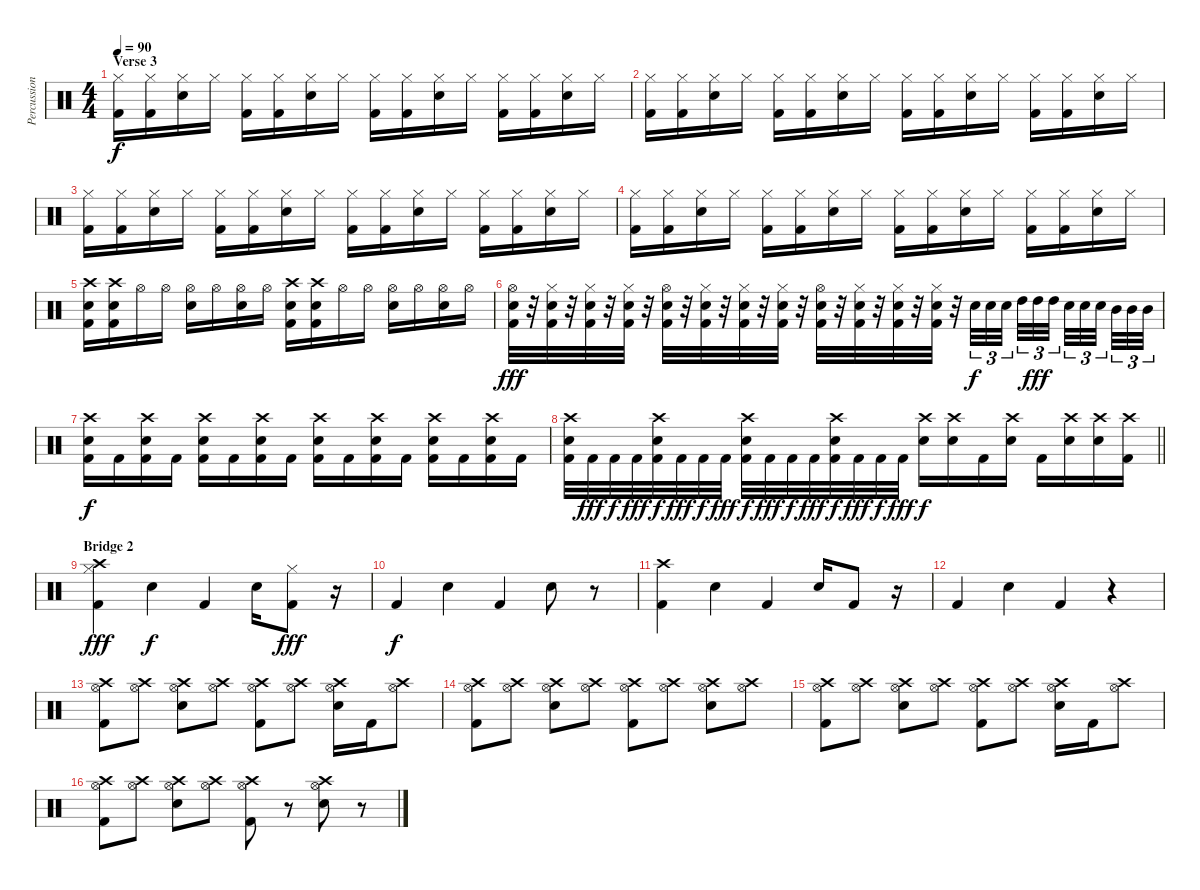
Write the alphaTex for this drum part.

\track ("Percussion" "Percussion") {instrument percussion}
\staff {score}
\articulation defaults
\ts (4 4)
\section ("" "Verse 3")
\tempo 90
\clef neutral
\ks c
("Hi-Hat (closed)" "Kick (hit) 2").16{dy f} ("Hi-Hat (closed)" "Kick (hit) 2").16 ("Hi-Hat (closed)" "Snare (hit) 2").16 "Hi-Hat (closed)".16 ("Hi-Hat (closed)" "Kick (hit) 2").16 ("Hi-Hat (closed)" "Kick (hit) 2").16 ("Hi-Hat (closed)" "Snare (hit) 2").16 "Hi-Hat (closed)".16 ("Hi-Hat (closed)" "Kick (hit) 2").16 ("Hi-Hat (closed)" "Kick (hit) 2").16 ("Hi-Hat (closed)" "Snare (hit) 2").16 "Hi-Hat (closed)".16 ("Hi-Hat (closed)" "Kick (hit) 2").16 ("Hi-Hat (closed)" "Kick (hit) 2").16 ("Hi-Hat (closed)" "Snare (hit) 2").16 "Hi-Hat (closed)".16 |
("Hi-Hat (closed)" "Kick (hit) 2").16 ("Hi-Hat (closed)" "Kick (hit) 2").16 ("Hi-Hat (closed)" "Snare (hit) 2").16 "Hi-Hat (closed)".16 ("Hi-Hat (closed)" "Kick (hit) 2").16 ("Hi-Hat (closed)" "Kick (hit) 2").16 ("Hi-Hat (closed)" "Snare (hit) 2").16 "Hi-Hat (closed)".16 ("Hi-Hat (closed)" "Kick (hit) 2").16 ("Hi-Hat (closed)" "Kick (hit) 2").16 ("Hi-Hat (closed)" "Snare (hit) 2").16 "Hi-Hat (closed)".16 ("Hi-Hat (closed)" "Kick (hit) 2").16 ("Hi-Hat (closed)" "Kick (hit) 2").16 ("Hi-Hat (closed)" "Snare (hit) 2").16 "Hi-Hat (closed)".16 |
("Hi-Hat (closed)" "Kick (hit) 2").16 ("Hi-Hat (closed)" "Kick (hit) 2").16 ("Hi-Hat (closed)" "Snare (hit) 2").16 "Hi-Hat (closed)".16 ("Hi-Hat (closed)" "Kick (hit) 2").16 ("Hi-Hat (closed)" "Kick (hit) 2").16 ("Hi-Hat (closed)" "Snare (hit) 2").16 "Hi-Hat (closed)".16 ("Hi-Hat (closed)" "Kick (hit) 2").16 ("Hi-Hat (closed)" "Kick (hit) 2").16 ("Hi-Hat (closed)" "Snare (hit) 2").16 "Hi-Hat (closed)".16 ("Hi-Hat (closed)" "Kick (hit) 2").16 ("Hi-Hat (closed)" "Kick (hit) 2").16 ("Hi-Hat (closed)" "Snare (hit) 2").16 "Hi-Hat (closed)".16 |
("Hi-Hat (closed)" "Kick (hit) 2").16 ("Hi-Hat (closed)" "Kick (hit) 2").16 ("Hi-Hat (closed)" "Snare (hit) 2").16 "Hi-Hat (closed)".16 ("Hi-Hat (closed)" "Kick (hit) 2").16 ("Hi-Hat (closed)" "Kick (hit) 2").16 ("Hi-Hat (closed)" "Snare (hit) 2").16 "Hi-Hat (closed)".16 ("Hi-Hat (closed)" "Kick (hit) 2").16 ("Hi-Hat (closed)" "Kick (hit) 2").16 ("Hi-Hat (closed)" "Snare (hit) 2").16 "Hi-Hat (closed)".16 ("Hi-Hat (closed)" "Kick (hit) 2").16 ("Hi-Hat (closed)" "Kick (hit) 2").16 ("Hi-Hat (closed)" "Snare (hit) 2").16 "Hi-Hat (closed)".16 |
("Crash high (hit)" "Snare (hit) 2" "Kick (hit) 2").16 ("Crash high (hit)" "Snare (hit) 2" "Kick (hit) 2").16 "Hi-Hat (open)".16 "Hi-Hat (open)".16 ("Hi-Hat (open)" "Snare (hit) 2").16 "Hi-Hat (open)".16 ("Hi-Hat (open)" "Snare (hit) 2").16 "Hi-Hat (open)".16 ("Crash high (hit)" "Snare (hit) 2" "Kick (hit) 2").16 ("Crash high (hit)" "Snare (hit) 2" "Kick (hit) 2").16 "Hi-Hat (open)".16 "Hi-Hat (open)".16 ("Hi-Hat (open)" "Snare (hit) 2").16 "Hi-Hat (open)".16 ("Hi-Hat (open)" "Snare (hit) 2").16 "Hi-Hat (open)".16 |
("Hi-Hat (open)" "Snare (hit) 2" "Kick (hit) 2").32{dy fff} r.32 ("Hi-Hat (closed)" "Snare (hit) 2" "Kick (hit) 2").32 r.32 ("Hi-Hat (closed)" "Snare (hit) 2" "Kick (hit) 2").32 r.32 ("Hi-Hat (closed)" "Snare (hit) 2" "Kick (hit) 2").32 r.32 ("Hi-Hat (open)" "Snare (hit) 2" "Kick (hit) 2").32 r.32 ("Hi-Hat (closed)" "Snare (hit) 2" "Kick (hit) 2").32 r.32 ("Hi-Hat (closed)" "Snare (hit) 2" "Kick (hit) 2").32 r.32 ("Hi-Hat (closed)" "Snare (hit) 2" "Kick (hit) 2").32 r.32 ("Hi-Hat (open)" "Snare (hit) 2" "Kick (hit) 2").32 r.32 ("Hi-Hat (closed)" "Snare (hit) 2" "Kick (hit) 2").32 r.32 ("Hi-Hat (closed)" "Snare (hit) 2" "Kick (hit) 2").32 r.32 ("Hi-Hat (closed)" "Snare (hit) 2" "Kick (hit) 2").32 r.32 "Snare (hit) 2".32{tu (3 2) dy f} "Snare (hit) 2".32{tu (3 2)} "Snare (hit) 2".32{tu (3 2) beam splitsecondary} "High Tom (hit)".32{tu (3 2)} "High Tom (hit)".32{tu (3 2) dy fff} "High Tom (hit)".32{tu (3 2) beam splitsecondary} "Snare (hit) 2".32{tu (3 2)} "Snare (hit) 2".32{tu (3 2)} "Snare (hit) 2".32{tu (3 2) beam splitsecondary} "Mid Tom (hit)".32{tu (3 2)} "Mid Tom (hit)".32{tu (3 2)} "Mid Tom (hit)".32{tu (3 2)} |
("Crash high (hit)" "Snare (hit) 2" "Kick (hit) 2").16{dy f} "Kick (hit) 2".16 ("Crash high (hit)" "Snare (hit) 2" "Kick (hit) 2").16 "Kick (hit) 2".16 ("Crash high (hit)" "Snare (hit) 2" "Kick (hit) 2").16 "Kick (hit) 2".16 ("Crash high (hit)" "Snare (hit) 2" "Kick (hit) 2").16 "Kick (hit) 2".16 ("Crash high (hit)" "Snare (hit) 2" "Kick (hit) 2").16 "Kick (hit) 2".16 ("Crash high (hit)" "Snare (hit) 2" "Kick (hit) 2").16 "Kick (hit) 2".16 ("Crash high (hit)" "Snare (hit) 2" "Kick (hit) 2").16 "Kick (hit) 2".16 ("Crash high (hit)" "Snare (hit) 2" "Kick (hit) 2").16 "Kick (hit) 2".16 |
\barLineRight lightlight
("Crash high (hit)" "Snare (hit) 2" "Kick (hit) 2").32 "Kick (hit) 2".32{dy fff} "Kick (hit) 2".32{dy f} "Kick (hit) 2".32{dy fff} ("Crash high (hit)" "Snare (hit) 2" "Kick (hit) 2").32{dy f} "Kick (hit) 2".32{dy fff} "Kick (hit) 2".32{dy f} "Kick (hit) 2".32{dy fff} ("Crash high (hit)" "Snare (hit) 2" "Kick (hit) 2").32{dy f} "Kick (hit) 2".32{dy fff} "Kick (hit) 2".32{dy f} "Kick (hit) 2".32{dy fff} ("Crash high (hit)" "Snare (hit) 2" "Kick (hit) 2").32{dy f} "Kick (hit) 2".32{dy fff} "Kick (hit) 2".32{dy f} "Kick (hit) 2".32{dy fff} ("Crash high (hit)" "Snare (hit) 2").16{dy f} ("Crash high (hit)" "Snare (hit) 2").16 "Kick (hit) 2".16 ("Crash high (hit)" "Snare (hit) 2").16 "Kick (hit) 2".16 ("Crash high (hit)" "Snare (hit) 2").16 ("Crash high (hit)" "Snare (hit) 2").16 ("Crash high (hit)" "Kick (hit) 2").16 |
\section ("" "Bridge 2")
("Hi-Hat (closed)" "Crash high (hit)" "Kick (hit) 2").4{dy fff} "Snare (hit) 2".4{dy f} "Kick (hit) 2".4 "Snare (hit) 2".16 ("Hi-Hat (closed)" "Kick (hit) 2").8{dy fff} r.16 |
"Kick (hit) 2".4{dy f} "Snare (hit) 2".4 "Kick (hit) 2".4 "Snare (hit) 2".8 r.8 |
("Crash high (hit)" "Kick (hit) 2").4 "Snare (hit) 2".4 "Kick (hit) 2".4 "Snare (hit) 2".16 "Kick (hit) 2".8 r.16 |
"Kick (hit) 2".4 "Snare (hit) 2".4 "Kick (hit) 2".4 r.4 |
("Hi-Hat (open)" "Crash high (hit)" "Kick (hit) 2").8 ("Hi-Hat (open)" "Crash high (hit)").8 ("Hi-Hat (open)" "Crash high (hit)" "Snare (hit) 2").8 ("Hi-Hat (open)" "Crash high (hit)").8 ("Hi-Hat (open)" "Crash high (hit)" "Kick (hit) 2").8 ("Hi-Hat (open)" "Crash high (hit)").8 ("Hi-Hat (open)" "Crash high (hit)" "Snare (hit) 2").16 "Kick (hit) 2".16 ("Hi-Hat (open)" "Crash high (hit)").8 |
("Hi-Hat (open)" "Crash high (hit)" "Kick (hit) 2").8 ("Hi-Hat (open)" "Crash high (hit)").8 ("Hi-Hat (open)" "Crash high (hit)" "Snare (hit) 2").8 ("Hi-Hat (open)" "Crash high (hit)").8 ("Hi-Hat (open)" "Crash high (hit)" "Kick (hit) 2").8 ("Hi-Hat (open)" "Crash high (hit)").8 ("Hi-Hat (open)" "Crash high (hit)" "Snare (hit) 2").8 ("Hi-Hat (open)" "Crash high (hit)").8 |
("Hi-Hat (open)" "Crash high (hit)" "Kick (hit) 2").8 ("Hi-Hat (open)" "Crash high (hit)").8 ("Hi-Hat (open)" "Crash high (hit)" "Snare (hit) 2").8 ("Hi-Hat (open)" "Crash high (hit)").8 ("Hi-Hat (open)" "Crash high (hit)" "Kick (hit) 2").8 ("Hi-Hat (open)" "Crash high (hit)").8 ("Hi-Hat (open)" "Crash high (hit)" "Snare (hit) 2").16 "Kick (hit) 2".16 ("Hi-Hat (open)" "Crash high (hit)").8 |
("Hi-Hat (open)" "Crash high (hit)" "Kick (hit) 2").8 ("Hi-Hat (open)" "Crash high (hit)").8 ("Hi-Hat (open)" "Crash high (hit)" "Snare (hit) 2").8 ("Hi-Hat (open)" "Crash high (hit)").8 ("Hi-Hat (open)" "Crash high (hit)" "Kick (hit) 2").8 r.8 ("Hi-Hat (open)" "Crash high (hit)" "Snare (hit) 2").8 r.8
